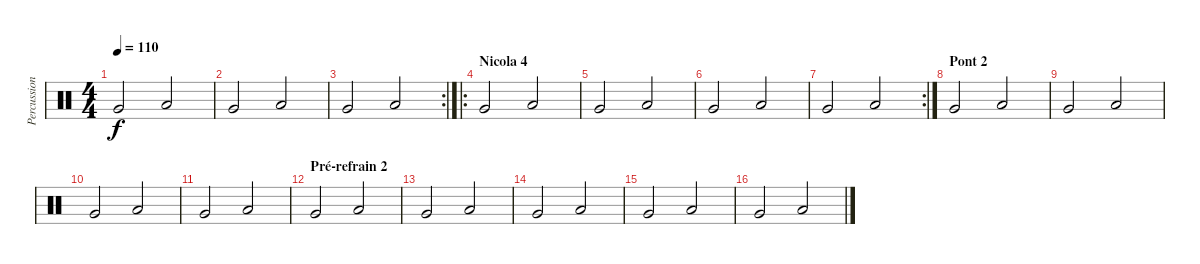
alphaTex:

\track ("Percussions" "Percussion") {instrument percussion}
\staff {score}
\articulation defaults
\ts (4 4)
\tempo 110
\clef neutral
\ks c "Very Low Tom (hit)".2{dy f} "Low Floor Tom (hit)".2
|
"Very Low Tom (hit)".2 "Low Floor Tom (hit)".2 |
\rc 2 "Very Low Tom (hit)".2 "Low Floor Tom (hit)".2
|
\ro
\section ("" "Nicola 4")
"Very Low Tom (hit)".2 "Low Floor Tom (hit)".2 |
"Very Low Tom (hit)".2 "Low Floor Tom (hit)".2 |
"Very Low Tom (hit)".2 "Low Floor Tom (hit)".2 |
\rc 2 "Very Low Tom (hit)".2 "Low Floor Tom (hit)".2
|
\section ("" "Pont 2")
"Very Low Tom (hit)".2 "Low Floor Tom (hit)".2 |
"Very Low Tom (hit)".2 "Low Floor Tom (hit)".2 |
"Very Low Tom (hit)".2 "Low Floor Tom (hit)".2 |
"Very Low Tom (hit)".2 "Low Floor Tom (hit)".2 |
\section ("" "Pré-refrain 2")
"Very Low Tom (hit)".2 "Low Floor Tom (hit)".2 |
"Very Low Tom (hit)".2 "Low Floor Tom (hit)".2 |
"Very Low Tom (hit)".2 "Low Floor Tom (hit)".2 |
"Very Low Tom (hit)".2 "Low Floor Tom (hit)".2 |
"Very Low Tom (hit)".2 "Low Floor Tom (hit)".2
